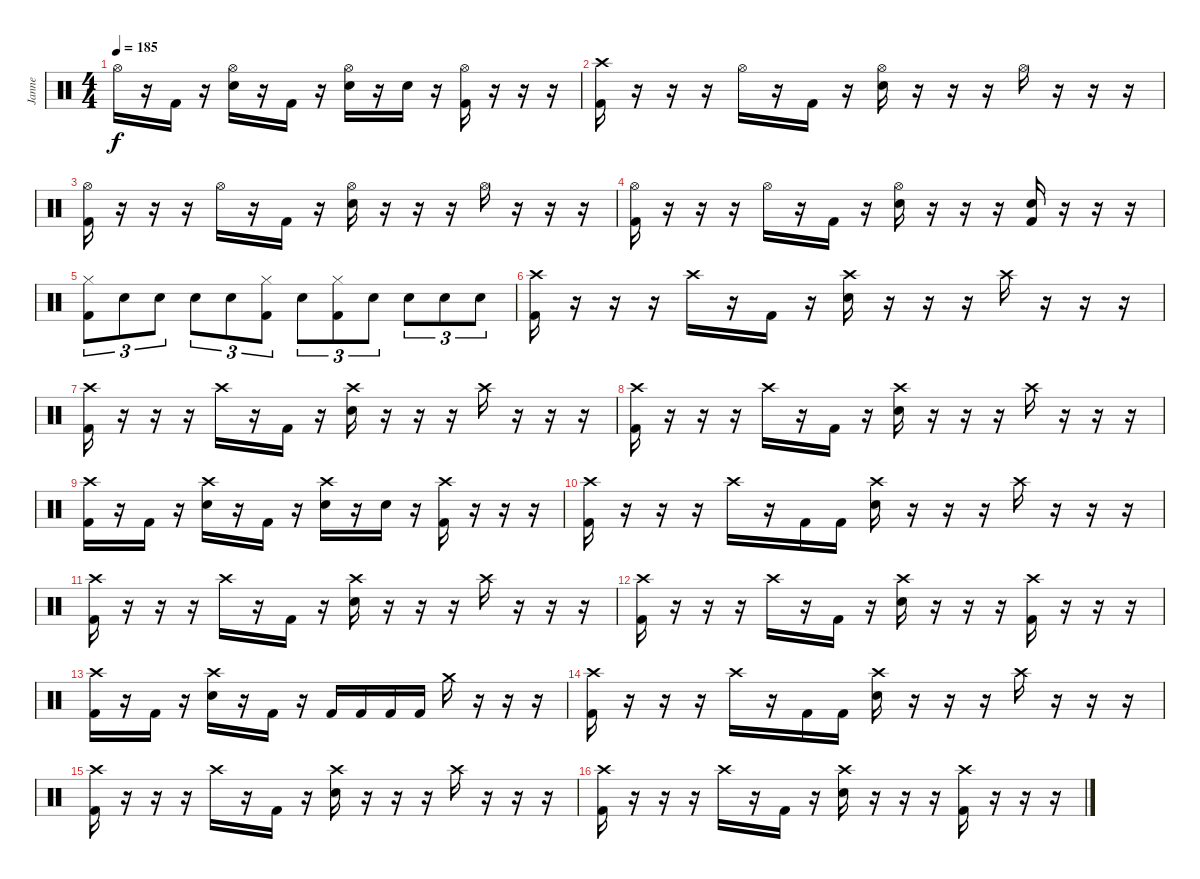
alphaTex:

\track ("Janne" "Janne") {instrument percussion}
\staff {score}
\articulation defaults
\ts (4 4)
\tempo 185
\clef neutral
\ks c "Hi-Hat (open)".16{dy f}
r.16 "Kick (hit) 2".16 r.16 ("Hi-Hat (open)" "Electric Snare (hit)").16 r.16 "Kick (hit) 2".16 r.16 ("Hi-Hat (open)" "Electric Snare (hit)").16 r.16 "Electric Snare (hit)".16 r.16 ("Hi-Hat (open)" "Kick (hit) 2").16 r.16 r.16 r.16 |
("Crash high (hit)" "Kick (hit) 2").16 r.16 r.16 r.16 "Hi-Hat (open)".16 r.16 "Kick (hit) 2".16 r.16 ("Hi-Hat (open)" "Electric Snare (hit)").16 r.16 r.16 r.16 "Hi-Hat (open)".16 r.16 r.16 r.16 |
("Hi-Hat (open)" "Kick (hit) 2").16 r.16 r.16 r.16 "Hi-Hat (open)".16 r.16 "Kick (hit) 2".16 r.16 ("Hi-Hat (open)" "Electric Snare (hit)").16 r.16 r.16 r.16 "Hi-Hat (open)".16 r.16 r.16 r.16 |
("Hi-Hat (open)" "Kick (hit) 2").16 r.16 r.16 r.16 "Hi-Hat (open)".16 r.16 "Kick (hit) 2".16 r.16 ("Hi-Hat (open)" "Electric Snare (hit)").16 r.16 r.16 r.16 ("Electric Snare (hit)" "Kick (hit) 2").16 r.16 r.16 r.16 |
("Hi-Hat (closed)" "Kick (hit) 2").8{tu (3 2)} "Snare (hit) 2".8{tu (3 2)} "Snare (hit) 2".8{tu (3 2)} "Snare (hit) 2".8{tu (3 2)} "Snare (hit) 2".8{tu (3 2)} ("Hi-Hat (closed)" "Kick (hit) 2").8{tu (3 2)} "Snare (hit) 2".8{tu (3 2)} ("Hi-Hat (closed)" "Kick (hit) 2").8{tu (3 2)} "Snare (hit) 2".8{tu (3 2)} "Snare (hit) 2".8{tu (3 2)} "Snare (hit) 2".8{tu (3 2)} "Snare (hit) 2".8{tu (3 2)} |
("Crash high (hit)" "Kick (hit) 2").16 r.16 r.16 r.16 "Crash high (hit)".16 r.16 "Kick (hit) 2".16 r.16 ("Crash high (hit)" "Electric Snare (hit)").16 r.16 r.16 r.16 "Crash high (hit)".16 r.16 r.16 r.16 |
("Crash high (hit)" "Kick (hit) 2").16 r.16 r.16 r.16 "Crash high (hit)".16 r.16 "Kick (hit) 2".16 r.16 ("Crash high (hit)" "Electric Snare (hit)").16 r.16 r.16 r.16 "Crash high (hit)".16 r.16 r.16 r.16 |
("Crash high (hit)" "Kick (hit) 2").16 r.16 r.16 r.16 "Crash high (hit)".16 r.16 "Kick (hit) 2".16 r.16 ("Crash high (hit)" "Electric Snare (hit)").16 r.16 r.16 r.16 "Crash high (hit)".16 r.16 r.16 r.16 |
("Crash high (hit)" "Kick (hit) 2").16 r.16 "Kick (hit) 2".16 r.16 ("Crash high (hit)" "Electric Snare (hit)").16 r.16 "Kick (hit) 2".16 r.16 ("Crash high (hit)" "Electric Snare (hit)").16 r.16 "Electric Snare (hit)".16 r.16 ("Crash high (hit)" "Kick (hit) 2").16 r.16 r.16 r.16 |
("Crash high (hit)" "Kick (hit) 2").16 r.16 r.16 r.16 "Crash high (hit)".16 r.16 "Kick (hit) 2".16 "Kick (hit) 2".16 ("Crash high (hit)" "Electric Snare (hit)").16 r.16 r.16 r.16 "Crash high (hit)".16 r.16 r.16 r.16 |
("Crash high (hit)" "Kick (hit) 2").16 r.16 r.16 r.16 "Crash high (hit)".16 r.16 "Kick (hit) 2".16 r.16 ("Crash high (hit)" "Electric Snare (hit)").16 r.16 r.16 r.16 "Crash high (hit)".16 r.16 r.16 r.16 |
("Crash high (hit)" "Kick (hit) 2").16 r.16 r.16 r.16 "Crash high (hit)".16 r.16 "Kick (hit) 2".16 r.16 ("Crash high (hit)" "Electric Snare (hit)").16 r.16 r.16 r.16 ("Crash high (hit)" "Kick (hit) 2").16 r.16 r.16 r.16 |
("Crash high (hit)" "Kick (hit) 2").16 r.16 "Kick (hit) 2".16 r.16 ("Crash high (hit)" "Electric Snare (hit)").16 r.16 "Kick (hit) 2".16 r.16 "Kick (hit) 2".16 "Kick (hit) 2".16 "Kick (hit) 2".16 "Kick (hit) 2".16 "Crash medium (hit)".16 r.16 r.16 r.16 |
("Crash high (hit)" "Kick (hit) 2").16 r.16 r.16 r.16 "Crash high (hit)".16 r.16 "Kick (hit) 2".16 "Kick (hit) 2".16 ("Crash high (hit)" "Electric Snare (hit)").16 r.16 r.16 r.16 "Crash high (hit)".16 r.16 r.16 r.16 |
("Crash high (hit)" "Kick (hit) 2").16 r.16 r.16 r.16 "Crash high (hit)".16 r.16 "Kick (hit) 2".16 r.16 ("Crash high (hit)" "Electric Snare (hit)").16 r.16 r.16 r.16 "Crash high (hit)".16 r.16 r.16 r.16 |
("Crash high (hit)" "Kick (hit) 2").16 r.16 r.16 r.16 "Crash high (hit)".16 r.16 "Kick (hit) 2".16 r.16 ("Crash high (hit)" "Electric Snare (hit)").16 r.16 r.16 r.16 ("Crash high (hit)" "Kick (hit) 2").16 r.16 r.16 r.16
